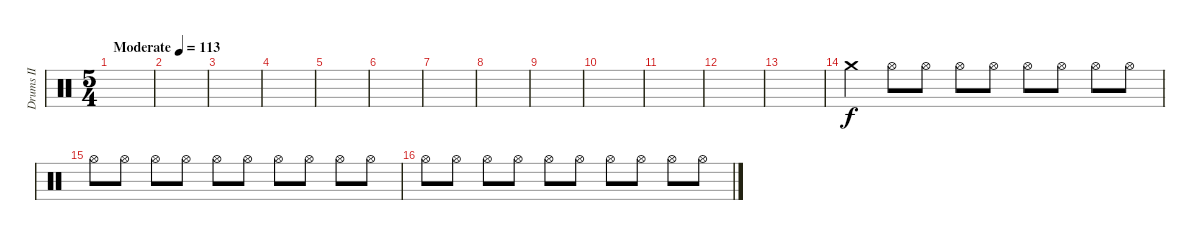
\track ("Drums II" "Drums II") {instrument percussion}
\staff {score}
\articulation defaults
\ts (5 4)
\tempo (113 "Moderate")
\clef neutral
\ks c
|
|
|
|
|
|
|
|
|
|
|
|
|
"Crash medium (hit)".4 "Hi-Hat (open)".8 "Hi-Hat (open)".8 "Hi-Hat (open)".8 "Hi-Hat (open)".8 "Hi-Hat (open)".8 "Hi-Hat (open)".8 "Hi-Hat (open)".8 "Hi-Hat (open)".8 |
"Hi-Hat (open)".8 "Hi-Hat (open)".8 "Hi-Hat (open)".8 "Hi-Hat (open)".8 "Hi-Hat (open)".8 "Hi-Hat (open)".8 "Hi-Hat (open)".8 "Hi-Hat (open)".8 "Hi-Hat (open)".8 "Hi-Hat (open)".8 |
"Hi-Hat (open)".8 "Hi-Hat (open)".8 "Hi-Hat (open)".8 "Hi-Hat (open)".8 "Hi-Hat (open)".8 "Hi-Hat (open)".8 "Hi-Hat (open)".8 "Hi-Hat (open)".8 "Hi-Hat (open)".8 "Hi-Hat (open)".8
